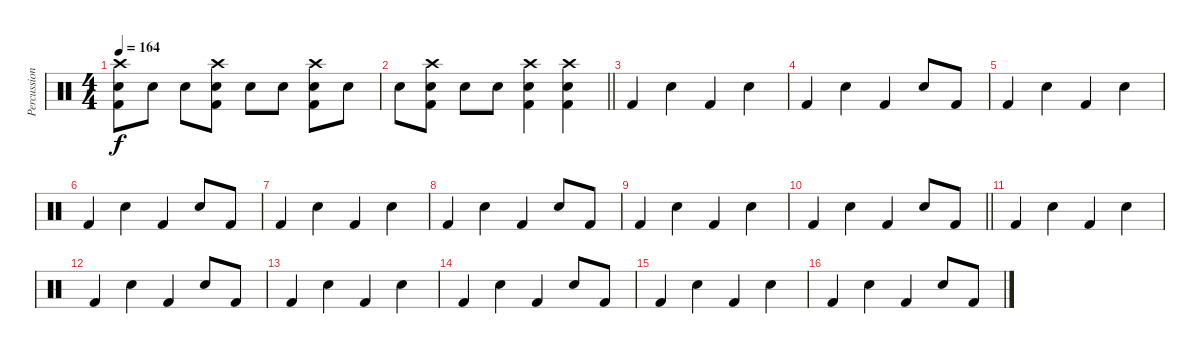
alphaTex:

\track ("Percussions" "Percussion") {instrument percussion}
\staff {score}
\articulation defaults
\ts (4 4)
\tempo 164
\clef neutral
\ks c
("Crash high (hit)" "Electric Snare (hit)" "Kick (hit) 2").8{dy f} "Electric Snare (hit)".8 "Electric Snare (hit)".8 ("Crash high (hit)" "Electric Snare (hit)" "Kick (hit) 2").8 "Electric Snare (hit)".8 "Electric Snare (hit)".8 ("Crash high (hit)" "Electric Snare (hit)" "Kick (hit) 2").8 "Electric Snare (hit)".8 |
\barLineRight lightlight "Electric Snare (hit)".8
("Crash high (hit)" "Electric Snare (hit)" "Kick (hit) 2").8 "Electric Snare (hit)".8 "Electric Snare (hit)".8 ("Crash high (hit)" "Electric Snare (hit)" "Kick (hit) 2").4 ("Crash high (hit)" "Electric Snare (hit)" "Kick (hit) 2").4 |
"Kick (hit) 2".4 "Electric Snare (hit)".4 "Kick (hit) 2".4 "Electric Snare (hit)".4 |
"Kick (hit) 2".4 "Electric Snare (hit)".4 "Kick (hit) 2".4 "Electric Snare (hit)".8 "Kick (hit) 2".8 |
"Kick (hit) 2".4 "Electric Snare (hit)".4 "Kick (hit) 2".4 "Electric Snare (hit)".4 |
"Kick (hit) 2".4 "Electric Snare (hit)".4 "Kick (hit) 2".4 "Electric Snare (hit)".8 "Kick (hit) 2".8 |
"Kick (hit) 2".4 "Electric Snare (hit)".4 "Kick (hit) 2".4 "Electric Snare (hit)".4 |
"Kick (hit) 2".4 "Electric Snare (hit)".4 "Kick (hit) 2".4 "Electric Snare (hit)".8 "Kick (hit) 2".8 |
"Kick (hit) 2".4 "Electric Snare (hit)".4 "Kick (hit) 2".4 "Electric Snare (hit)".4 |
\barLineRight lightlight "Kick (hit) 2".4 "Electric Snare (hit)".4 "Kick (hit) 2".4 "Electric Snare (hit)".8 "Kick (hit) 2".8
|
"Kick (hit) 2".4 "Electric Snare (hit)".4 "Kick (hit) 2".4 "Electric Snare (hit)".4 |
"Kick (hit) 2".4 "Electric Snare (hit)".4 "Kick (hit) 2".4 "Electric Snare (hit)".8 "Kick (hit) 2".8 |
"Kick (hit) 2".4 "Electric Snare (hit)".4 "Kick (hit) 2".4 "Electric Snare (hit)".4 |
"Kick (hit) 2".4 "Electric Snare (hit)".4 "Kick (hit) 2".4 "Electric Snare (hit)".8 "Kick (hit) 2".8 |
"Kick (hit) 2".4 "Electric Snare (hit)".4 "Kick (hit) 2".4 "Electric Snare (hit)".4 |
"Kick (hit) 2".4 "Electric Snare (hit)".4 "Kick (hit) 2".4 "Electric Snare (hit)".8 "Kick (hit) 2".8
